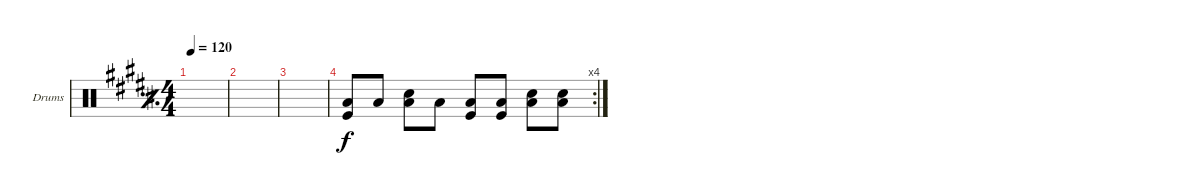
\defaultSystemsLayout 4
\bracketExtendMode groupsimilarinstruments
\firstSystemTrackNameOrientation horizontal
\otherSystemsTrackNameOrientation horizontal
\track ("Drumkit" "Drums") {instrument percussion}
\staff {score}
\articulation defaults
\ts (4 4)
\tempo 120
\clef neutral
\simile simple
\scale
0.333333
\ks b
|
\scale
0.333333 |
|
\rc 4
\simile none
("Low Tom (hit)" "Kick (hit)").8 "Low Tom (hit)".8 ("Low Tom (hit)" "Snare (hit) 2").8 "Low Tom (hit)".8 ("Low Tom (hit)" "Kick (hit)").8 ("Low Tom (hit)" "Kick (hit)").8 ("Low Tom (hit)" "Snare (hit) 2").8 ("Low Tom (hit)" "Snare (hit) 2").8
